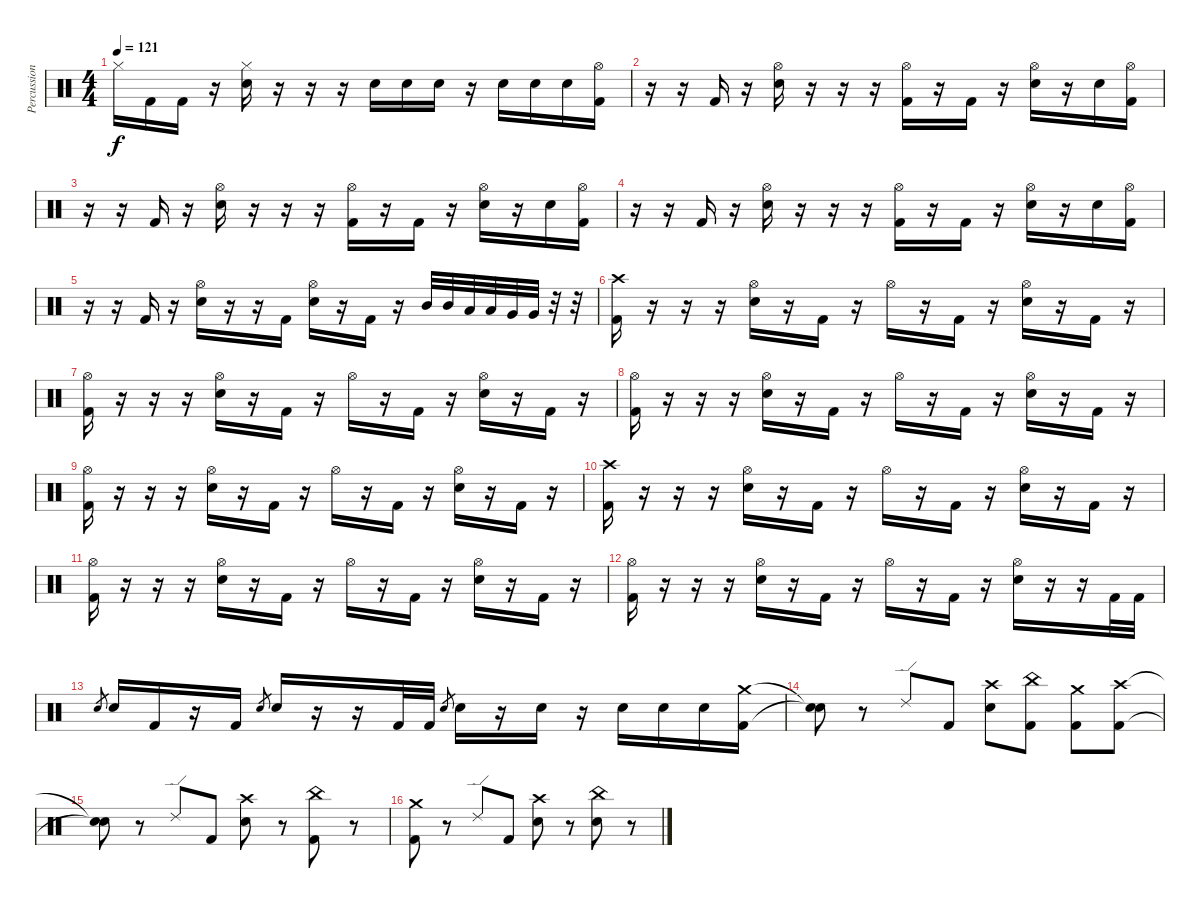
\track ("Percussion" "Percussion") {instrument percussion}
\staff {score}
\articulation defaults
\ts (4 4)
\tempo 121
\clef neutral
\ks c "Hi-Hat (closed)".16{dy f} "Kick (hit) 2".16 "Kick (hit) 2".16
r.16 ("Hi-Hat (closed)" "Electric Snare (hit)").16 r.16 r.16 r.16 "Electric Snare (hit)".16 "Electric Snare (hit)".16 "Electric Snare (hit)".16 r.16 "Electric Snare (hit)".16 "Electric Snare (hit)".16 "Electric Snare (hit)".16 ("Hi-Hat (open)" "Kick (hit) 2").16 |
r.16 r.16 "Kick (hit) 2".16 r.16 ("Hi-Hat (open)" "Electric Snare (hit)").16 r.16 r.16 r.16 ("Hi-Hat (open)" "Kick (hit) 2").16 r.16 "Kick (hit) 2".16 r.16 ("Hi-Hat (open)" "Electric Snare (hit)").16 r.16 "Electric Snare (hit)".16 ("Hi-Hat (open)" "Kick (hit) 2").16 |
r.16 r.16 "Kick (hit) 2".16 r.16 ("Hi-Hat (open)" "Electric Snare (hit)").16 r.16 r.16 r.16 ("Hi-Hat (open)" "Kick (hit) 2").16 r.16 "Kick (hit) 2".16 r.16 ("Hi-Hat (open)" "Electric Snare (hit)").16 r.16 "Electric Snare (hit)".16 ("Hi-Hat (open)" "Kick (hit) 2").16 |
r.16 r.16 "Kick (hit) 2".16 r.16 ("Hi-Hat (open)" "Electric Snare (hit)").16 r.16 r.16 r.16 ("Hi-Hat (open)" "Kick (hit) 2").16 r.16 "Kick (hit) 2".16 r.16 ("Hi-Hat (open)" "Electric Snare (hit)").16 r.16 "Electric Snare (hit)".16 ("Hi-Hat (open)" "Kick (hit) 2").16 |
r.16 r.16 "Kick (hit) 2".16 r.16 ("Hi-Hat (open)" "Electric Snare (hit)").16 r.16 r.16 "Kick (hit) 2".16 ("Hi-Hat (open)" "Electric Snare (hit)").16 r.16 "Kick (hit) 2".16 r.16 "Mid Tom (hit)".32 "Mid Tom (hit)".32 "Low Tom (hit)".32 "Low Tom (hit)".32 "Very Low Tom (hit)".32 "Very Low Tom (hit)".32 r.32 r.32 |
("Crash high (hit)" "Kick (hit) 2").16 r.16 r.16 r.16 ("Hi-Hat (open)" "Electric Snare (hit)").16 r.16 "Kick (hit) 2".16 r.16 "Hi-Hat (open)".16 r.16 "Kick (hit) 2".16 r.16 ("Hi-Hat (open)" "Electric Snare (hit)").16 r.16 "Kick (hit) 2".16 r.16 |
("Hi-Hat (open)" "Kick (hit) 2").16 r.16 r.16 r.16 ("Hi-Hat (open)" "Electric Snare (hit)").16 r.16 "Kick (hit) 2".16 r.16 "Hi-Hat (open)".16 r.16 "Kick (hit) 2".16 r.16 ("Hi-Hat (open)" "Electric Snare (hit)").16 r.16 "Kick (hit) 2".16 r.16 |
("Hi-Hat (open)" "Kick (hit) 2").16 r.16 r.16 r.16 ("Hi-Hat (open)" "Electric Snare (hit)").16 r.16 "Kick (hit) 2".16 r.16 "Hi-Hat (open)".16 r.16 "Kick (hit) 2".16 r.16 ("Hi-Hat (open)" "Electric Snare (hit)").16 r.16 "Kick (hit) 2".16 r.16 |
("Hi-Hat (open)" "Kick (hit) 2").16 r.16 r.16 r.16 ("Hi-Hat (open)" "Electric Snare (hit)").16 r.16 "Kick (hit) 2".16 r.16 "Hi-Hat (open)".16 r.16 "Kick (hit) 2".16 r.16 ("Hi-Hat (open)" "Electric Snare (hit)").16 r.16 "Kick (hit) 2".16 r.16 |
("Crash high (hit)" "Kick (hit) 2").16 r.16 r.16 r.16 ("Hi-Hat (open)" "Electric Snare (hit)").16 r.16 "Kick (hit) 2".16 r.16 "Hi-Hat (open)".16 r.16 "Kick (hit) 2".16 r.16 ("Hi-Hat (open)" "Electric Snare (hit)").16 r.16 "Kick (hit) 2".16 r.16 |
("Hi-Hat (open)" "Kick (hit) 2").16 r.16 r.16 r.16 ("Hi-Hat (open)" "Electric Snare (hit)").16 r.16 "Kick (hit) 2".16 r.16 "Hi-Hat (open)".16 r.16 "Kick (hit) 2".16 r.16 ("Hi-Hat (open)" "Electric Snare (hit)").16 r.16 "Kick (hit) 2".16 r.16 |
("Hi-Hat (open)" "Kick (hit) 2").16 r.16 r.16 r.16 ("Hi-Hat (open)" "Electric Snare (hit)").16 r.16 "Kick (hit) 2".16 r.16 "Hi-Hat (open)".16 r.16 "Kick (hit) 2".16 r.16 ("Hi-Hat (open)" "Electric Snare (hit)").16 r.16 r.16 "Kick (hit) 2".32 "Kick (hit) 2".32 |
"Electric Snare (hit)".8{gr} "Electric Snare (hit)".16 "Kick (hit) 2".16 r.16 "Kick (hit) 2".16 "Electric Snare (hit)".8{gr} "Electric Snare (hit)".16 r.16 r.16 "Kick (hit) 2".32 "Kick (hit) 2".32 "Electric Snare (hit)".8{gr} "Electric Snare (hit)".16 r.16 "Electric Snare (hit)".16 r.16 "Electric Snare (hit)".16 "Electric Snare (hit)".16 "Electric Snare (hit)".16 ("Crash medium (hit)" "Kick (hit) 2").16 |
("Snare (hit)"{t} "Snare (hit)"{t}).8 r.8 "Ride (edge) 2".8 "Kick (hit) 2".8 ("Crash high (hit)" "Electric Snare (hit)").8 ("China (hit)" "Kick (hit) 2").8 ("Crash medium (hit)" "Kick (hit) 2").8 ("Crash high (hit)" "Kick (hit) 2").8 |
("Snare (hit)"{t} "Snare (hit)"{t}).8 r.8 "Ride (edge) 2".8 "Kick (hit) 2".8 ("Crash high (hit)" "Electric Snare (hit)").8 r.8 ("China (hit)" "Kick (hit) 2").8 r.8 |
("Crash medium (hit)" "Kick (hit) 2").8 r.8 "Ride (edge) 2".8 "Kick (hit) 2".8 ("Crash high (hit)" "Electric Snare (hit)").8 r.8 ("China (hit)" "Electric Snare (hit)").8 r.8
